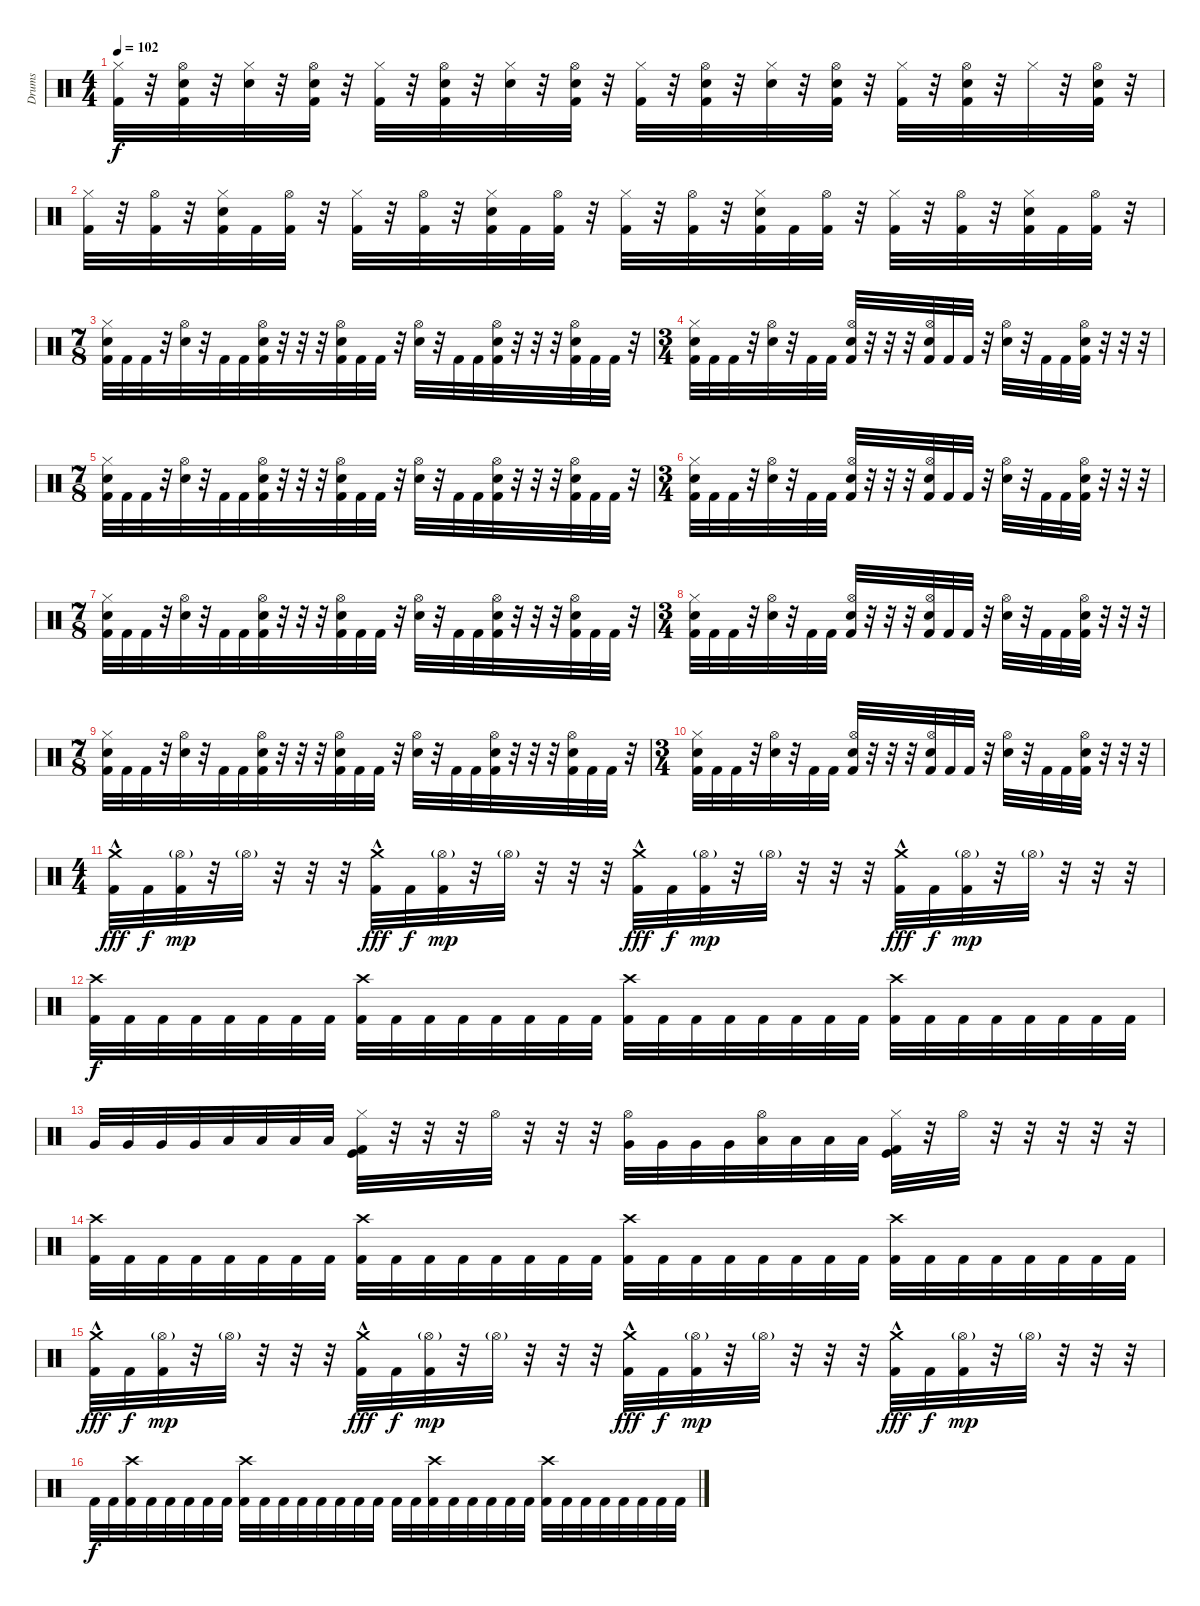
\track ("Drums" "Drums") {instrument percussion}
\staff {score}
\articulation defaults
\ts (4 4)
\tempo 102
\clef neutral
\ks c
("Hi-Hat (closed)" "Kick (hit) 2").32{dy f} r.32 ("Hi-Hat (open)" "Electric Snare (hit)" "Kick (hit) 2").32 r.32 ("Hi-Hat (closed)" "Electric Snare (hit)").32 r.32 ("Hi-Hat (open)" "Electric Snare (hit)" "Kick (hit) 2").32 r.32 ("Hi-Hat (closed)" "Kick (hit) 2").32 r.32 ("Hi-Hat (open)" "Electric Snare (hit)" "Kick (hit) 2").32 r.32 ("Hi-Hat (closed)" "Electric Snare (hit)").32 r.32 ("Hi-Hat (open)" "Electric Snare (hit)" "Kick (hit) 2").32 r.32 ("Hi-Hat (closed)" "Kick (hit) 2").32 r.32 ("Hi-Hat (open)" "Electric Snare (hit)" "Kick (hit) 2").32 r.32 ("Hi-Hat (closed)" "Electric Snare (hit)").32 r.32 ("Hi-Hat (open)" "Electric Snare (hit)" "Kick (hit) 2").32 r.32 ("Hi-Hat (closed)" "Kick (hit) 2").32 r.32 ("Hi-Hat (open)" "Electric Snare (hit)" "Kick (hit) 2").32 r.32 "Hi-Hat (closed)".32 r.32 ("Hi-Hat (open)" "Electric Snare (hit)" "Kick (hit) 2").32 r.32 |
("Hi-Hat (closed)" "Kick (hit) 2").32 r.32 ("Hi-Hat (open)" "Kick (hit) 2").32 r.32 ("Hi-Hat (closed)" "Electric Snare (hit)" "Kick (hit) 2").32 "Kick (hit) 2".32 ("Hi-Hat (open)" "Kick (hit) 2").32 r.32 ("Hi-Hat (closed)" "Kick (hit) 2").32 r.32 ("Hi-Hat (open)" "Kick (hit) 2").32 r.32 ("Hi-Hat (closed)" "Electric Snare (hit)" "Kick (hit) 2").32 "Kick (hit) 2".32 ("Hi-Hat (open)" "Kick (hit) 2").32 r.32 ("Hi-Hat (closed)" "Kick (hit) 2").32 r.32 ("Hi-Hat (open)" "Kick (hit) 2").32 r.32 ("Hi-Hat (closed)" "Electric Snare (hit)" "Kick (hit) 2").32 "Kick (hit) 2".32 ("Hi-Hat (open)" "Kick (hit) 2").32 r.32 ("Hi-Hat (closed)" "Kick (hit) 2").32 r.32 ("Hi-Hat (open)" "Kick (hit) 2").32 r.32 ("Hi-Hat (closed)" "Electric Snare (hit)" "Kick (hit) 2").32 "Kick (hit) 2".32 ("Hi-Hat (open)" "Kick (hit) 2").32 r.32 |
\ts (7 8)
("Hi-Hat (closed)" "Electric Snare (hit)" "Kick (hit) 2").32 "Kick (hit) 2".32 "Kick (hit) 2".32 r.32 ("Hi-Hat (open)" "Electric Snare (hit)").32 r.32 "Kick (hit) 2".32 "Kick (hit) 2".32 ("Hi-Hat (open)" "Electric Snare (hit)" "Kick (hit) 2").32 r.32 r.32 r.32 ("Hi-Hat (open)" "Electric Snare (hit)" "Kick (hit) 2").32 "Kick (hit) 2".32 "Kick (hit) 2".32 r.32 ("Hi-Hat (open)" "Electric Snare (hit)").32 r.32 "Kick (hit) 2".32 "Kick (hit) 2".32 ("Hi-Hat (open)" "Electric Snare (hit)" "Kick (hit) 2").32 r.32 r.32 r.32 ("Hi-Hat (open)" "Electric Snare (hit)" "Kick (hit) 2").32 "Kick (hit) 2".32 "Kick (hit) 2".32 r.32 |
\ts (3 4)
("Hi-Hat (closed)" "Electric Snare (hit)" "Kick (hit) 2").32 "Kick (hit) 2".32 "Kick (hit) 2".32 r.32 ("Hi-Hat (open)" "Electric Snare (hit)").32 r.32 "Kick (hit) 2".32 "Kick (hit) 2".32 ("Hi-Hat (open)" "Electric Snare (hit)" "Kick (hit) 2").32 r.32 r.32 r.32 ("Hi-Hat (open)" "Electric Snare (hit)" "Kick (hit) 2").32 "Kick (hit) 2".32 "Kick (hit) 2".32 r.32 ("Hi-Hat (open)" "Electric Snare (hit)").32 r.32 "Kick (hit) 2".32 "Kick (hit) 2".32 ("Hi-Hat (open)" "Electric Snare (hit)" "Kick (hit) 2").32 r.32 r.32 r.32 |
\ts (7 8)
("Hi-Hat (closed)" "Electric Snare (hit)" "Kick (hit) 2").32 "Kick (hit) 2".32 "Kick (hit) 2".32 r.32 ("Hi-Hat (open)" "Electric Snare (hit)").32 r.32 "Kick (hit) 2".32 "Kick (hit) 2".32 ("Hi-Hat (open)" "Electric Snare (hit)" "Kick (hit) 2").32 r.32 r.32 r.32 ("Hi-Hat (open)" "Electric Snare (hit)" "Kick (hit) 2").32 "Kick (hit) 2".32 "Kick (hit) 2".32 r.32 ("Hi-Hat (open)" "Electric Snare (hit)").32 r.32 "Kick (hit) 2".32 "Kick (hit) 2".32 ("Hi-Hat (open)" "Electric Snare (hit)" "Kick (hit) 2").32 r.32 r.32 r.32 ("Hi-Hat (open)" "Electric Snare (hit)" "Kick (hit) 2").32 "Kick (hit) 2".32 "Kick (hit) 2".32 r.32 |
\ts (3 4)
("Hi-Hat (closed)" "Electric Snare (hit)" "Kick (hit) 2").32 "Kick (hit) 2".32 "Kick (hit) 2".32 r.32 ("Hi-Hat (open)" "Electric Snare (hit)").32 r.32 "Kick (hit) 2".32 "Kick (hit) 2".32 ("Hi-Hat (open)" "Electric Snare (hit)" "Kick (hit) 2").32 r.32 r.32 r.32 ("Hi-Hat (open)" "Electric Snare (hit)" "Kick (hit) 2").32 "Kick (hit) 2".32 "Kick (hit) 2".32 r.32 ("Hi-Hat (open)" "Electric Snare (hit)").32 r.32 "Kick (hit) 2".32 "Kick (hit) 2".32 ("Hi-Hat (open)" "Electric Snare (hit)" "Kick (hit) 2").32 r.32 r.32 r.32 |
\ts (7 8)
("Hi-Hat (closed)" "Electric Snare (hit)" "Kick (hit) 2").32 "Kick (hit) 2".32 "Kick (hit) 2".32 r.32 ("Hi-Hat (open)" "Electric Snare (hit)").32 r.32 "Kick (hit) 2".32 "Kick (hit) 2".32 ("Hi-Hat (open)" "Electric Snare (hit)" "Kick (hit) 2").32 r.32 r.32 r.32 ("Hi-Hat (open)" "Electric Snare (hit)" "Kick (hit) 2").32 "Kick (hit) 2".32 "Kick (hit) 2".32 r.32 ("Hi-Hat (open)" "Electric Snare (hit)").32 r.32 "Kick (hit) 2".32 "Kick (hit) 2".32 ("Hi-Hat (open)" "Electric Snare (hit)" "Kick (hit) 2").32 r.32 r.32 r.32 ("Hi-Hat (open)" "Electric Snare (hit)" "Kick (hit) 2").32 "Kick (hit) 2".32 "Kick (hit) 2".32 r.32 |
\ts (3 4)
("Hi-Hat (closed)" "Electric Snare (hit)" "Kick (hit) 2").32 "Kick (hit) 2".32 "Kick (hit) 2".32 r.32 ("Hi-Hat (open)" "Electric Snare (hit)").32 r.32 "Kick (hit) 2".32 "Kick (hit) 2".32 ("Hi-Hat (open)" "Electric Snare (hit)" "Kick (hit) 2").32 r.32 r.32 r.32 ("Hi-Hat (open)" "Electric Snare (hit)" "Kick (hit) 2").32 "Kick (hit) 2".32 "Kick (hit) 2".32 r.32 ("Hi-Hat (open)" "Electric Snare (hit)").32 r.32 "Kick (hit) 2".32 "Kick (hit) 2".32 ("Hi-Hat (open)" "Electric Snare (hit)" "Kick (hit) 2").32 r.32 r.32 r.32 |
\ts (7 8)
("Hi-Hat (closed)" "Electric Snare (hit)" "Kick (hit) 2").32 "Kick (hit) 2".32 "Kick (hit) 2".32 r.32 ("Hi-Hat (open)" "Electric Snare (hit)").32 r.32 "Kick (hit) 2".32 "Kick (hit) 2".32 ("Hi-Hat (open)" "Electric Snare (hit)" "Kick (hit) 2").32 r.32 r.32 r.32 ("Hi-Hat (open)" "Electric Snare (hit)" "Kick (hit) 2").32 "Kick (hit) 2".32 "Kick (hit) 2".32 r.32 ("Hi-Hat (open)" "Electric Snare (hit)").32 r.32 "Kick (hit) 2".32 "Kick (hit) 2".32 ("Hi-Hat (open)" "Electric Snare (hit)" "Kick (hit) 2").32 r.32 r.32 r.32 ("Hi-Hat (open)" "Electric Snare (hit)" "Kick (hit) 2").32 "Kick (hit) 2".32 "Kick (hit) 2".32 r.32 |
\ts (3 4)
("Hi-Hat (closed)" "Electric Snare (hit)" "Kick (hit) 2").32 "Kick (hit) 2".32 "Kick (hit) 2".32 r.32 ("Hi-Hat (open)" "Electric Snare (hit)").32 r.32 "Kick (hit) 2".32 "Kick (hit) 2".32 ("Hi-Hat (open)" "Electric Snare (hit)" "Kick (hit) 2").32 r.32 r.32 r.32 ("Hi-Hat (open)" "Electric Snare (hit)" "Kick (hit) 2").32 "Kick (hit) 2".32 "Kick (hit) 2".32 r.32 ("Hi-Hat (open)" "Electric Snare (hit)").32 r.32 "Kick (hit) 2".32 "Kick (hit) 2".32 ("Hi-Hat (open)" "Electric Snare (hit)" "Kick (hit) 2").32 r.32 r.32 r.32 |
\ts (4 4)
("Crash medium (hit)"{hac} "Kick (hit) 2").32{dy fff} "Kick (hit) 2".32{dy f} ("Hi-Hat (open)"{g} "Kick (hit) 2").32{dy mp} r.32 "Hi-Hat (open)"{g}.32 r.32 r.32 r.32 ("Crash medium (hit)"{hac} "Kick (hit) 2").32{dy fff} "Kick (hit) 2".32{dy f} ("Hi-Hat (open)"{g} "Kick (hit) 2").32{dy mp} r.32 "Hi-Hat (open)"{g}.32 r.32 r.32 r.32 ("Crash medium (hit)"{hac} "Kick (hit) 2").32{dy fff} "Kick (hit) 2".32{dy f} ("Hi-Hat (open)"{g} "Kick (hit) 2").32{dy mp} r.32 "Hi-Hat (open)"{g}.32 r.32 r.32 r.32 ("Crash medium (hit)"{hac} "Kick (hit) 2").32{dy fff} "Kick (hit) 2".32{dy f} ("Hi-Hat (open)"{g} "Kick (hit) 2").32{dy mp} r.32 "Hi-Hat (open)"{g}.32 r.32 r.32 r.32 |
("Crash high (hit)" "Kick (hit) 2").32{dy f} "Kick (hit) 2".32 "Kick (hit) 2".32 "Kick (hit) 2".32 "Kick (hit) 2".32 "Kick (hit) 2".32 "Kick (hit) 2".32 "Kick (hit) 2".32 ("Crash high (hit)" "Kick (hit) 2").32 "Kick (hit) 2".32 "Kick (hit) 2".32 "Kick (hit) 2".32 "Kick (hit) 2".32 "Kick (hit) 2".32 "Kick (hit) 2".32 "Kick (hit) 2".32 ("Crash high (hit)" "Kick (hit) 2").32 "Kick (hit) 2".32 "Kick (hit) 2".32 "Kick (hit) 2".32 "Kick (hit) 2".32 "Kick (hit) 2".32 "Kick (hit) 2".32 "Kick (hit) 2".32 ("Crash high (hit)" "Kick (hit) 2").32 "Kick (hit) 2".32 "Kick (hit) 2".32 "Kick (hit) 2".32 "Kick (hit) 2".32 "Kick (hit) 2".32 "Kick (hit) 2".32 "Kick (hit) 2".32 |
"Very Low Tom (hit)".32 "Very Low Tom (hit)".32 "Very Low Tom (hit)".32 "Very Low Tom (hit)".32 "Low Floor Tom (hit)".32 "Low Floor Tom (hit)".32 "Low Floor Tom (hit)".32 "Low Floor Tom (hit)".32 ("Hi-Hat (closed)" "Kick (hit)" "Kick (hit) 2").32 r.32 r.32 r.32 "Hi-Hat (open)".32 r.32 r.32 r.32 ("Hi-Hat (open)" "Very Low Tom (hit)").32 "Very Low Tom (hit)".32 "Very Low Tom (hit)".32 "Very Low Tom (hit)".32 ("Hi-Hat (open)" "Low Floor Tom (hit)").32 "Low Floor Tom (hit)".32 "Low Floor Tom (hit)".32 "Low Floor Tom (hit)".32 ("Hi-Hat (closed)" "Kick (hit)" "Kick (hit) 2").32 r.32 "Hi-Hat (open)".32 r.32 r.32 r.32 r.32 r.32 |
("Crash high (hit)" "Kick (hit) 2").32 "Kick (hit) 2".32 "Kick (hit) 2".32 "Kick (hit) 2".32 "Kick (hit) 2".32 "Kick (hit) 2".32 "Kick (hit) 2".32 "Kick (hit) 2".32 ("Crash high (hit)" "Kick (hit) 2").32 "Kick (hit) 2".32 "Kick (hit) 2".32 "Kick (hit) 2".32 "Kick (hit) 2".32 "Kick (hit) 2".32 "Kick (hit) 2".32 "Kick (hit) 2".32 ("Crash high (hit)" "Kick (hit) 2").32 "Kick (hit) 2".32 "Kick (hit) 2".32 "Kick (hit) 2".32 "Kick (hit) 2".32 "Kick (hit) 2".32 "Kick (hit) 2".32 "Kick (hit) 2".32 ("Crash high (hit)" "Kick (hit) 2").32 "Kick (hit) 2".32 "Kick (hit) 2".32 "Kick (hit) 2".32 "Kick (hit) 2".32 "Kick (hit) 2".32 "Kick (hit) 2".32 "Kick (hit) 2".32 |
("Crash medium (hit)"{hac} "Kick (hit) 2").32{dy fff} "Kick (hit) 2".32{dy f} ("Hi-Hat (open)"{g} "Kick (hit) 2").32{dy mp} r.32 "Hi-Hat (open)"{g}.32 r.32 r.32 r.32 ("Crash medium (hit)"{hac} "Kick (hit) 2").32{dy fff} "Kick (hit) 2".32{dy f} ("Hi-Hat (open)"{g} "Kick (hit) 2").32{dy mp} r.32 "Hi-Hat (open)"{g}.32 r.32 r.32 r.32 ("Crash medium (hit)"{hac} "Kick (hit) 2").32{dy fff} "Kick (hit) 2".32{dy f} ("Hi-Hat (open)"{g} "Kick (hit) 2").32{dy mp} r.32 "Hi-Hat (open)"{g}.32 r.32 r.32 r.32 ("Crash medium (hit)"{hac} "Kick (hit) 2").32{dy fff} "Kick (hit) 2".32{dy f} ("Hi-Hat (open)"{g} "Kick (hit) 2").32{dy mp} r.32 "Hi-Hat (open)"{g}.32 r.32 r.32 r.32 |
"Kick (hit) 2".32{dy f} "Kick (hit) 2".32 ("Crash high (hit)" "Kick (hit) 2").32 "Kick (hit) 2".32 "Kick (hit) 2".32 "Kick (hit) 2".32 "Kick (hit) 2".32 "Kick (hit) 2".32 ("Crash high (hit)" "Kick (hit) 2").32 "Kick (hit) 2".32 "Kick (hit) 2".32 "Kick (hit) 2".32 "Kick (hit) 2".32 "Kick (hit) 2".32 "Kick (hit) 2".32 "Kick (hit) 2".32 "Kick (hit) 2".32 "Kick (hit) 2".32 ("Crash high (hit)" "Kick (hit) 2").32 "Kick (hit) 2".32 "Kick (hit) 2".32 "Kick (hit) 2".32 "Kick (hit) 2".32 "Kick (hit) 2".32 ("Crash high (hit)" "Kick (hit) 2").32 "Kick (hit) 2".32 "Kick (hit) 2".32 "Kick (hit) 2".32 "Kick (hit) 2".32 "Kick (hit) 2".32 "Kick (hit) 2".32 "Kick (hit) 2".32
